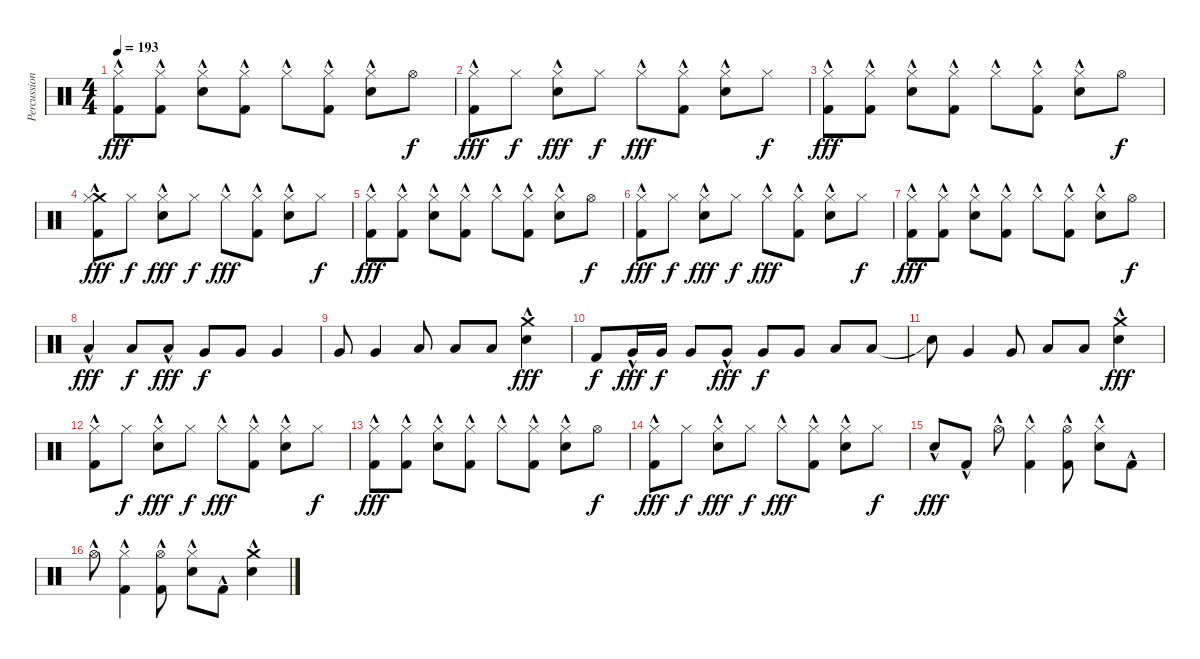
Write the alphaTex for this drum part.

\track ("Percussion" "Percussion") {instrument percussion}
\staff {score}
\articulation defaults
\ts (4 4)
\tempo 193
\clef neutral
\ks c
("Hi-Hat (closed)"{hac} "Kick (hit) 2"{hac}).8{dy fff} ("Hi-Hat (closed)" "Kick (hit) 2"{hac}).8 ("Hi-Hat (closed)"{hac} "Electric Snare (hit)"{hac}).8 ("Hi-Hat (closed)" "Kick (hit) 2"{hac}).8 "Hi-Hat (closed)"{hac}.8 ("Hi-Hat (closed)" "Kick (hit) 2"{hac}).8 ("Hi-Hat (closed)"{hac} "Electric Snare (hit)"{hac}).8 "Hi-Hat (open)".8{dy f} |
("Hi-Hat (closed)"{hac} "Kick (hit) 2"{hac}).8{dy fff} "Hi-Hat (closed)".8{dy f} ("Hi-Hat (closed)"{hac} "Electric Snare (hit)"{hac}).8{dy fff} "Hi-Hat (closed)".8{dy f} "Hi-Hat (closed)"{hac}.8{dy fff} ("Hi-Hat (closed)" "Kick (hit) 2"{hac}).8 ("Hi-Hat (closed)"{hac} "Electric Snare (hit)"{hac}).8 "Hi-Hat (closed)".8{dy f} |
("Hi-Hat (closed)"{hac} "Kick (hit) 2"{hac}).8{dy fff} ("Hi-Hat (closed)" "Kick (hit) 2"{hac}).8 ("Hi-Hat (closed)"{hac} "Electric Snare (hit)"{hac}).8 ("Hi-Hat (closed)" "Kick (hit) 2"{hac}).8 "Hi-Hat (closed)"{hac}.8 ("Hi-Hat (closed)" "Kick (hit) 2"{hac}).8 ("Hi-Hat (closed)"{hac} "Electric Snare (hit)"{hac}).8 "Hi-Hat (open)".8{dy f} |
("Crash medium (hit)"{hac} "Hi-Hat (closed)"{hac} "Kick (hit) 2"{hac}).8{dy fff} "Hi-Hat (closed)".8{dy f} ("Hi-Hat (closed)"{hac} "Electric Snare (hit)"{hac}).8{dy fff} "Hi-Hat (closed)".8{dy f} "Hi-Hat (closed)"{hac}.8{dy fff} ("Hi-Hat (closed)" "Kick (hit) 2"{hac}).8 ("Hi-Hat (closed)"{hac} "Electric Snare (hit)"{hac}).8 "Hi-Hat (closed)".8{dy f} |
("Hi-Hat (closed)"{hac} "Kick (hit) 2"{hac}).8{dy fff} ("Hi-Hat (closed)" "Kick (hit) 2"{hac}).8 ("Hi-Hat (closed)"{hac} "Electric Snare (hit)"{hac}).8 ("Hi-Hat (closed)" "Kick (hit) 2"{hac}).8 "Hi-Hat (closed)"{hac}.8 ("Hi-Hat (closed)" "Kick (hit) 2"{hac}).8 ("Hi-Hat (closed)"{hac} "Electric Snare (hit)"{hac}).8 "Hi-Hat (open)".8{dy f} |
("Hi-Hat (closed)"{hac} "Kick (hit) 2"{hac}).8{dy fff} "Hi-Hat (closed)".8{dy f} ("Hi-Hat (closed)"{hac} "Electric Snare (hit)"{hac}).8{dy fff} "Hi-Hat (closed)".8{dy f} "Hi-Hat (closed)"{hac}.8{dy fff} ("Hi-Hat (closed)" "Kick (hit) 2"{hac}).8 ("Hi-Hat (closed)"{hac} "Electric Snare (hit)"{hac}).8 "Hi-Hat (closed)".8{dy f} |
("Hi-Hat (closed)"{hac} "Kick (hit) 2"{hac}).8{dy fff} ("Hi-Hat (closed)" "Kick (hit) 2"{hac}).8 ("Hi-Hat (closed)"{hac} "Electric Snare (hit)"{hac}).8 ("Hi-Hat (closed)" "Kick (hit) 2"{hac}).8 "Hi-Hat (closed)"{hac}.8 ("Hi-Hat (closed)" "Kick (hit) 2"{hac}).8 ("Hi-Hat (closed)"{hac} "Electric Snare (hit)"{hac}).8 "Hi-Hat (open)".8{dy f} |
"Low Tom (hit)"{hac}.4{dy fff} "Low Tom (hit)".8{dy f} "Low Tom (hit)"{hac}.8{dy fff} "Very Low Tom (hit)".8{dy f} "Very Low Tom (hit)".8 "Very Low Tom (hit)".4 |
"Very Low Tom (hit)".8 "Very Low Tom (hit)".4 "Low Floor Tom (hit)".8 "Low Floor Tom (hit)".8 "Low Floor Tom (hit)".8 ("Crash medium (hit)"{hac} "Electric Snare (hit)"{hac}).4{dy fff} |
"Kick (hit) 2".8{dy f} "Very Low Tom (hit)"{hac}.16{dy fff} "Very Low Tom (hit)".16{dy f} "Very Low Tom (hit)".8 "Very Low Tom (hit)"{hac}.8{dy fff} "Very Low Tom (hit)".8{dy f} "Very Low Tom (hit)".8 "Low Floor Tom (hit)".8 "Low Floor Tom (hit)".8 |
"Snare (hit)"{t}.8 "Very Low Tom (hit)".4 "Very Low Tom (hit)".8 "Low Floor Tom (hit)".8 "Low Floor Tom (hit)".8 ("Crash medium (hit)"{hac} "Electric Snare (hit)"{hac}).4{dy fff} |
("Hi-Hat (closed)"{hac} "Kick (hit) 2"{hac}).8 "Hi-Hat (closed)".8{dy f} ("Hi-Hat (closed)"{hac} "Electric Snare (hit)"{hac}).8{dy fff} "Hi-Hat (closed)".8{dy f} "Hi-Hat (closed)"{hac}.8{dy fff} ("Hi-Hat (closed)" "Kick (hit) 2"{hac}).8 ("Hi-Hat (closed)"{hac} "Electric Snare (hit)"{hac}).8 "Hi-Hat (closed)".8{dy f} |
("Hi-Hat (closed)"{hac} "Kick (hit) 2"{hac}).8{dy fff} ("Hi-Hat (closed)" "Kick (hit) 2"{hac}).8 ("Hi-Hat (closed)"{hac} "Electric Snare (hit)"{hac}).8 ("Hi-Hat (closed)" "Kick (hit) 2"{hac}).8 "Hi-Hat (closed)"{hac}.8 ("Hi-Hat (closed)" "Kick (hit) 2"{hac}).8 ("Hi-Hat (closed)"{hac} "Electric Snare (hit)"{hac}).8 "Hi-Hat (open)".8{dy f} |
("Hi-Hat (closed)"{hac} "Kick (hit) 2"{hac}).8{dy fff} "Hi-Hat (closed)".8{dy f} ("Hi-Hat (closed)"{hac} "Electric Snare (hit)"{hac}).8{dy fff} "Hi-Hat (closed)".8{dy f} "Hi-Hat (closed)"{hac}.8{dy fff} ("Hi-Hat (closed)" "Kick (hit) 2"{hac}).8 ("Hi-Hat (closed)"{hac} "Electric Snare (hit)"{hac}).8 "Hi-Hat (closed)".8{dy f} |
"Electric Snare (hit)"{hac}.8{dy fff} "Kick (hit) 2"{hac}.8 "Hi-Hat (open)"{hac}.8 ("Hi-Hat (closed)"{hac} "Kick (hit) 2"{hac}).4 ("Hi-Hat (open)"{hac} "Kick (hit) 2"{hac}).8 ("Hi-Hat (closed)"{hac} "Electric Snare (hit)"{hac}).8 "Kick (hit) 2"{hac}.8 |
"Hi-Hat (open)"{hac}.8 ("Hi-Hat (closed)"{hac} "Kick (hit) 2"{hac}).4 ("Hi-Hat (open)"{hac} "Kick (hit) 2"{hac}).8 ("Hi-Hat (closed)"{hac} "Electric Snare (hit)"{hac}).8 "Kick (hit) 2"{hac}.8 ("Crash medium (hit)"{hac} "Electric Snare (hit)"{hac}).4
